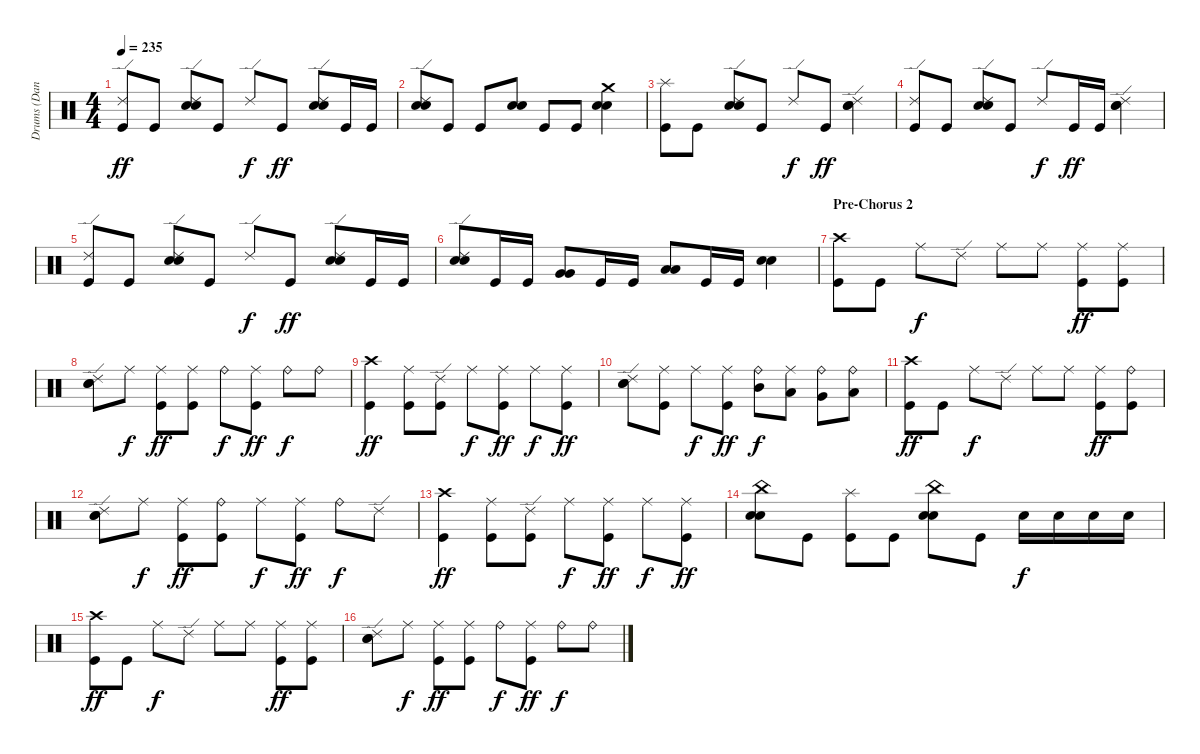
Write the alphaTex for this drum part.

\track ("Drums (Dan)" "Drums (Dan") {instrument percussion}
\staff {score}
\articulation defaults
\ts (4 4)
\tempo 235
\clef neutral
\ks c
("Kick (hit)" "Ride (edge) 2").8{dy ff} "Kick (hit)".8 ("Electric Snare (hit)" "Electric Snare (hit)" "Ride (edge) 2").8 "Kick (hit)".8 "Ride (edge) 2".8{dy f} "Kick (hit)".8{dy ff} ("Electric Snare (hit)" "Electric Snare (hit)" "Ride (edge) 2").8 "Kick (hit)".16 "Kick (hit)".16 |
("Electric Snare (hit)" "Electric Snare (hit)" "Ride (edge) 2").8 "Kick (hit)".8 "Kick (hit)".8 ("Electric Snare (hit)" "Electric Snare (hit)").8 "Kick (hit)".8 "Kick (hit)".8 ("Electric Snare (hit)" "Electric Snare (hit)" "Crash medium (hit)").4 |
("Kick (hit)" "Splash (hit)").8 "Kick (hit)".8 ("Electric Snare (hit)" "Electric Snare (hit)" "Ride (edge) 2").8 "Kick (hit)".8 "Ride (edge) 2".8{dy f} "Kick (hit)".8{dy ff} ("Electric Snare (hit)" "Electric Snare (hit)" "Ride (edge) 2").4 |
("Kick (hit)" "Ride (edge) 2").8 "Kick (hit)".8 ("Electric Snare (hit)" "Electric Snare (hit)" "Ride (edge) 2").8 "Kick (hit)".8 "Ride (edge) 2".8{dy f} "Kick (hit)".16{dy ff} "Kick (hit)".16 ("Electric Snare (hit)" "Electric Snare (hit)" "Ride (edge) 2").4 |
("Kick (hit)" "Ride (edge) 2").8 "Kick (hit)".8 ("Electric Snare (hit)" "Electric Snare (hit)" "Ride (edge) 2").8 "Kick (hit)".8 "Ride (edge) 2".8{dy f} "Kick (hit)".8{dy ff} ("Electric Snare (hit)" "Electric Snare (hit)" "Ride (edge) 2").8 "Kick (hit)".16 "Kick (hit)".16 |
("Electric Snare (hit)" "Electric Snare (hit)" "Ride (edge) 2").8 "Kick (hit)".16 "Kick (hit)".16 ("Very Low Tom (hit)" "Very Low Tom (hit)").8 "Kick (hit)".16 "Kick (hit)".16 ("Low Floor Tom (hit)" "Low Floor Tom (hit)").8 "Kick (hit)".16 "Kick (hit)".16 ("Electric Snare (hit)" "Electric Snare (hit)").4 |
\section ("" "Pre-Chorus 2")
("Kick (hit)" "Crash high (hit)").8 "Kick (hit)".8 "Ride (middle)".8{dy f} "Ride (edge) 2".8 "Ride (middle)".8 "Ride (middle)".8 ("Kick (hit)" "Ride (middle)").8{dy ff} ("Kick (hit)" "Ride (middle)").8 |
("Electric Snare (hit)" "Electric Snare (hit)" "Ride (edge) 2").8 "Ride (middle)".8{dy f} ("Kick (hit)" "Ride (middle)").8{dy ff} ("Kick (hit)" "Ride (middle)").8 "Ride (bell)".8{dy f} ("Kick (hit)" "Ride (middle)").8{dy ff} "Ride (bell)".8{dy f} "Ride (bell)".8 |
("Kick (hit)" "Crash high (hit)").4{dy ff} ("Kick (hit)" "Ride (middle)").8 ("Kick (hit)" "Ride (edge) 2").8 "Ride (middle)".8{dy f} ("Kick (hit)" "Ride (middle)").8{dy ff} "Ride (middle)".8{dy f} ("Kick (hit)" "Ride (middle)").8{dy ff} |
("Electric Snare (hit)" "Electric Snare (hit)" "Ride (edge) 2").8 ("Kick (hit)" "Ride (middle)").8 "Ride (middle)".8{dy f} ("Kick (hit)" "Ride (middle)").8{dy ff} ("Mid Tom (hit)" "Ride (bell)").8{dy f} ("Low Tom (hit)" "Ride (middle)").8 ("Very Low Tom (hit)" "Ride (bell)").8 ("Low Floor Tom (hit)" "Ride (bell)").8 |
("Kick (hit)" "Crash high (hit)").8{dy ff} "Kick (hit)".8 "Ride (middle)".8{dy f} "Ride (edge) 2".8 "Ride (middle)".8 "Ride (middle)".8 ("Kick (hit)" "Ride (middle)").8{dy ff} ("Kick (hit)" "Ride (bell)").8 |
("Electric Snare (hit)" "Electric Snare (hit)" "Ride (edge) 2").8 "Ride (middle)".8{dy f} ("Kick (hit)" "Ride (middle)").8{dy ff} ("Kick (hit)" "Ride (bell)").8 "Ride (middle)".8{dy f} ("Kick (hit)" "Ride (middle)").8{dy ff} "Ride (bell)".8{dy f} "Ride (edge) 2".8 |
("Kick (hit)" "Crash high (hit)").4{dy ff} ("Kick (hit)" "Ride (middle)").8 ("Kick (hit)" "Ride (edge) 2").8 "Ride (middle)".8{dy f} ("Kick (hit)" "Ride (middle)").8{dy ff} "Ride (middle)".8{dy f} ("Kick (hit)" "Ride (middle)").8{dy ff} |
("Electric Snare (hit)" "Electric Snare (hit)" "China (hit)").8 "Kick (hit)".8 ("Kick (hit)" "Splash (hit)").8 "Kick (hit)".8 ("Electric Snare (hit)" "Electric Snare (hit)" "China (hit)").8 "Kick (hit)".8 "Electric Snare (hit)".16{dy f} "Electric Snare (hit)".16 "Electric Snare (hit)".16 "Electric Snare (hit)".16 |
("Kick (hit)" "Crash high (hit)").8{dy ff} "Kick (hit)".8 "Ride (middle)".8{dy f} "Ride (edge) 2".8 "Ride (middle)".8 "Ride (middle)".8 ("Kick (hit)" "Ride (middle)").8{dy ff} ("Kick (hit)" "Ride (middle)").8 |
("Electric Snare (hit)" "Electric Snare (hit)" "Ride (edge) 2").8 "Ride (middle)".8{dy f} ("Kick (hit)" "Ride (middle)").8{dy ff} ("Kick (hit)" "Ride (middle)").8 "Ride (bell)".8{dy f} ("Kick (hit)" "Ride (middle)").8{dy ff} "Ride (bell)".8{dy f} "Ride (bell)".8
